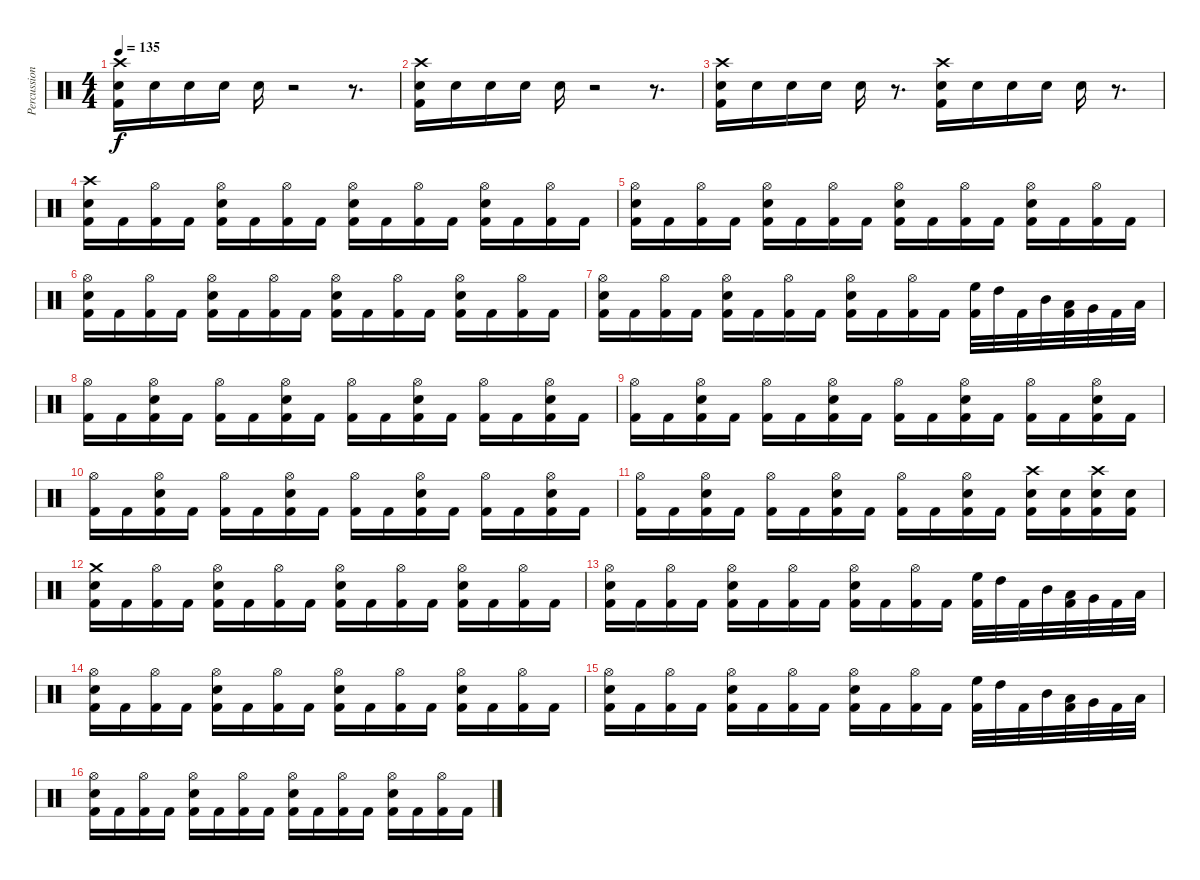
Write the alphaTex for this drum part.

\track ("Percussion" "Percussion") {instrument percussion}
\staff {score}
\articulation defaults
\ts (4 4)
\tempo 135
\clef neutral
\ks c
("Kick (hit) 2" "Electric Snare (hit)" "Crash high (hit)").16{dy f} "Electric Snare (hit)".16 "Electric Snare (hit)".16 "Electric Snare (hit)".16 "Electric Snare (hit)".16 r.2 r.8{d} |
("Kick (hit) 2" "Electric Snare (hit)" "Crash high (hit)").16 "Electric Snare (hit)".16 "Electric Snare (hit)".16 "Electric Snare (hit)".16 "Electric Snare (hit)".16 r.2 r.8{d} |
("Kick (hit) 2" "Electric Snare (hit)" "Crash high (hit)").16 "Electric Snare (hit)".16 "Electric Snare (hit)".16 "Electric Snare (hit)".16 "Electric Snare (hit)".16 r.8{d} ("Kick (hit) 2" "Electric Snare (hit)" "Crash high (hit)").16 "Electric Snare (hit)".16 "Electric Snare (hit)".16 "Electric Snare (hit)".16 "Electric Snare (hit)".16 r.8{d} |
("Kick (hit) 2" "Electric Snare (hit)" "Crash high (hit)").16 "Kick (hit) 2".16 ("Kick (hit) 2" "Hi-Hat (open)").16 "Kick (hit) 2".16 ("Kick (hit) 2" "Electric Snare (hit)" "Hi-Hat (open)").16 "Kick (hit) 2".16 ("Kick (hit) 2" "Hi-Hat (open)").16 "Kick (hit) 2".16 ("Kick (hit) 2" "Electric Snare (hit)" "Hi-Hat (open)").16 "Kick (hit) 2".16 ("Kick (hit) 2" "Hi-Hat (open)").16 "Kick (hit) 2".16 ("Kick (hit) 2" "Electric Snare (hit)" "Hi-Hat (open)").16 "Kick (hit) 2".16 ("Kick (hit) 2" "Hi-Hat (open)").16 "Kick (hit) 2".16 |
("Kick (hit) 2" "Electric Snare (hit)" "Hi-Hat (open)").16 "Kick (hit) 2".16 ("Kick (hit) 2" "Hi-Hat (open)").16 "Kick (hit) 2".16 ("Kick (hit) 2" "Electric Snare (hit)" "Hi-Hat (open)").16 "Kick (hit) 2".16 ("Kick (hit) 2" "Hi-Hat (open)").16 "Kick (hit) 2".16 ("Kick (hit) 2" "Electric Snare (hit)" "Hi-Hat (open)").16 "Kick (hit) 2".16 ("Kick (hit) 2" "Hi-Hat (open)").16 "Kick (hit) 2".16 ("Kick (hit) 2" "Electric Snare (hit)" "Hi-Hat (open)").16 "Kick (hit) 2".16 ("Kick (hit) 2" "Hi-Hat (open)").16 "Kick (hit) 2".16 |
("Kick (hit) 2" "Electric Snare (hit)" "Hi-Hat (open)").16 "Kick (hit) 2".16 ("Kick (hit) 2" "Hi-Hat (open)").16 "Kick (hit) 2".16 ("Kick (hit) 2" "Electric Snare (hit)" "Hi-Hat (open)").16 "Kick (hit) 2".16 ("Kick (hit) 2" "Hi-Hat (open)").16 "Kick (hit) 2".16 ("Kick (hit) 2" "Electric Snare (hit)" "Hi-Hat (open)").16 "Kick (hit) 2".16 ("Kick (hit) 2" "Hi-Hat (open)").16 "Kick (hit) 2".16 ("Kick (hit) 2" "Electric Snare (hit)" "Hi-Hat (open)").16 "Kick (hit) 2".16 ("Kick (hit) 2" "Hi-Hat (open)").16 "Kick (hit) 2".16 |
("Kick (hit) 2" "Electric Snare (hit)" "Hi-Hat (open)").16 "Kick (hit) 2".16 ("Kick (hit) 2" "Hi-Hat (open)").16 "Kick (hit) 2".16 ("Kick (hit) 2" "Electric Snare (hit)" "Hi-Hat (open)").16 "Kick (hit) 2".16 ("Kick (hit) 2" "Hi-Hat (open)").16 "Kick (hit) 2".16 ("Kick (hit) 2" "Electric Snare (hit)" "Hi-Hat (open)").16 "Kick (hit) 2".16 ("Kick (hit) 2" "Hi-Hat (open)").16 "Kick (hit) 2".16 ("Kick (hit) 2" "High Floor Tom (hit)").32 "High Tom (hit)".32 "Kick (hit) 2".32 "Mid Tom (hit)".32 ("Kick (hit) 2" "Low Tom (hit)").32 "Very Low Tom (hit)".32 "Kick (hit) 2".32 "Low Floor Tom (hit)".32 |
("Kick (hit) 2" "Hi-Hat (open)").16 "Kick (hit) 2".16 ("Kick (hit) 2" "Electric Snare (hit)" "Hi-Hat (open)").16 "Kick (hit) 2".16 ("Kick (hit) 2" "Hi-Hat (open)").16 "Kick (hit) 2".16 ("Kick (hit) 2" "Electric Snare (hit)" "Hi-Hat (open)").16 "Kick (hit) 2".16 ("Kick (hit) 2" "Hi-Hat (open)").16 "Kick (hit) 2".16 ("Kick (hit) 2" "Electric Snare (hit)" "Hi-Hat (open)").16 "Kick (hit) 2".16 ("Kick (hit) 2" "Hi-Hat (open)").16 "Kick (hit) 2".16 ("Kick (hit) 2" "Electric Snare (hit)" "Hi-Hat (open)").16 "Kick (hit) 2".16 |
("Kick (hit) 2" "Hi-Hat (open)").16 "Kick (hit) 2".16 ("Kick (hit) 2" "Electric Snare (hit)" "Hi-Hat (open)").16 "Kick (hit) 2".16 ("Kick (hit) 2" "Hi-Hat (open)").16 "Kick (hit) 2".16 ("Kick (hit) 2" "Electric Snare (hit)" "Hi-Hat (open)").16 "Kick (hit) 2".16 ("Kick (hit) 2" "Hi-Hat (open)").16 "Kick (hit) 2".16 ("Kick (hit) 2" "Electric Snare (hit)" "Hi-Hat (open)").16 "Kick (hit) 2".16 ("Kick (hit) 2" "Hi-Hat (open)").16 "Kick (hit) 2".16 ("Kick (hit) 2" "Electric Snare (hit)" "Hi-Hat (open)").16 "Kick (hit) 2".16 |
("Kick (hit) 2" "Hi-Hat (open)").16 "Kick (hit) 2".16 ("Kick (hit) 2" "Electric Snare (hit)" "Hi-Hat (open)").16 "Kick (hit) 2".16 ("Kick (hit) 2" "Hi-Hat (open)").16 "Kick (hit) 2".16 ("Kick (hit) 2" "Electric Snare (hit)" "Hi-Hat (open)").16 "Kick (hit) 2".16 ("Kick (hit) 2" "Hi-Hat (open)").16 "Kick (hit) 2".16 ("Kick (hit) 2" "Electric Snare (hit)" "Hi-Hat (open)").16 "Kick (hit) 2".16 ("Kick (hit) 2" "Hi-Hat (open)").16 "Kick (hit) 2".16 ("Kick (hit) 2" "Electric Snare (hit)" "Hi-Hat (open)").16 "Kick (hit) 2".16 |
("Kick (hit) 2" "Hi-Hat (open)").16 "Kick (hit) 2".16 ("Kick (hit) 2" "Electric Snare (hit)" "Hi-Hat (open)").16 "Kick (hit) 2".16 ("Kick (hit) 2" "Hi-Hat (open)").16 "Kick (hit) 2".16 ("Kick (hit) 2" "Electric Snare (hit)" "Hi-Hat (open)").16 "Kick (hit) 2".16 ("Kick (hit) 2" "Hi-Hat (open)").16 "Kick (hit) 2".16 ("Kick (hit) 2" "Electric Snare (hit)" "Hi-Hat (open)").16 "Kick (hit) 2".16 ("Kick (hit) 2" "Electric Snare (hit)" "Crash high (hit)").16 ("Kick (hit) 2" "Electric Snare (hit)").16 ("Kick (hit) 2" "Electric Snare (hit)" "Crash high (hit)").16 ("Kick (hit) 2" "Electric Snare (hit)").16 |
("Kick (hit) 2" "Electric Snare (hit)" "Crash medium (hit)").16 "Kick (hit) 2".16 ("Kick (hit) 2" "Hi-Hat (open)").16 "Kick (hit) 2".16 ("Kick (hit) 2" "Electric Snare (hit)" "Hi-Hat (open)").16 "Kick (hit) 2".16 ("Kick (hit) 2" "Hi-Hat (open)").16 "Kick (hit) 2".16 ("Kick (hit) 2" "Electric Snare (hit)" "Hi-Hat (open)").16 "Kick (hit) 2".16 ("Kick (hit) 2" "Hi-Hat (open)").16 "Kick (hit) 2".16 ("Kick (hit) 2" "Electric Snare (hit)" "Hi-Hat (open)").16 "Kick (hit) 2".16 ("Kick (hit) 2" "Hi-Hat (open)").16 "Kick (hit) 2".16 |
("Kick (hit) 2" "Electric Snare (hit)" "Hi-Hat (open)").16 "Kick (hit) 2".16 ("Kick (hit) 2" "Hi-Hat (open)").16 "Kick (hit) 2".16 ("Kick (hit) 2" "Electric Snare (hit)" "Hi-Hat (open)").16 "Kick (hit) 2".16 ("Kick (hit) 2" "Hi-Hat (open)").16 "Kick (hit) 2".16 ("Kick (hit) 2" "Electric Snare (hit)" "Hi-Hat (open)").16 "Kick (hit) 2".16 ("Kick (hit) 2" "Hi-Hat (open)").16 "Kick (hit) 2".16 ("Kick (hit) 2" "High Floor Tom (hit)").32 "High Tom (hit)".32 "Kick (hit) 2".32 "Mid Tom (hit)".32 ("Kick (hit) 2" "Low Tom (hit)").32 "Very Low Tom (hit)".32 "Kick (hit) 2".32 "Low Floor Tom (hit)".32 |
("Kick (hit) 2" "Electric Snare (hit)" "Hi-Hat (open)").16 "Kick (hit) 2".16 ("Kick (hit) 2" "Hi-Hat (open)").16 "Kick (hit) 2".16 ("Kick (hit) 2" "Electric Snare (hit)" "Hi-Hat (open)").16 "Kick (hit) 2".16 ("Kick (hit) 2" "Hi-Hat (open)").16 "Kick (hit) 2".16 ("Kick (hit) 2" "Electric Snare (hit)" "Hi-Hat (open)").16 "Kick (hit) 2".16 ("Kick (hit) 2" "Hi-Hat (open)").16 "Kick (hit) 2".16 ("Kick (hit) 2" "Electric Snare (hit)" "Hi-Hat (open)").16 "Kick (hit) 2".16 ("Kick (hit) 2" "Hi-Hat (open)").16 "Kick (hit) 2".16 |
("Kick (hit) 2" "Electric Snare (hit)" "Hi-Hat (open)").16 "Kick (hit) 2".16 ("Kick (hit) 2" "Hi-Hat (open)").16 "Kick (hit) 2".16 ("Kick (hit) 2" "Electric Snare (hit)" "Hi-Hat (open)").16 "Kick (hit) 2".16 ("Kick (hit) 2" "Hi-Hat (open)").16 "Kick (hit) 2".16 ("Kick (hit) 2" "Electric Snare (hit)" "Hi-Hat (open)").16 "Kick (hit) 2".16 ("Kick (hit) 2" "Hi-Hat (open)").16 "Kick (hit) 2".16 ("Kick (hit) 2" "High Floor Tom (hit)").32 "High Tom (hit)".32 "Kick (hit) 2".32 "Mid Tom (hit)".32 ("Kick (hit) 2" "Low Tom (hit)").32 "Very Low Tom (hit)".32 "Kick (hit) 2".32 "Low Floor Tom (hit)".32 |
("Kick (hit) 2" "Electric Snare (hit)" "Hi-Hat (open)").16 "Kick (hit) 2".16 ("Kick (hit) 2" "Hi-Hat (open)").16 "Kick (hit) 2".16 ("Kick (hit) 2" "Electric Snare (hit)" "Hi-Hat (open)").16 "Kick (hit) 2".16 ("Kick (hit) 2" "Hi-Hat (open)").16 "Kick (hit) 2".16 ("Kick (hit) 2" "Electric Snare (hit)" "Hi-Hat (open)").16 "Kick (hit) 2".16 ("Kick (hit) 2" "Hi-Hat (open)").16 "Kick (hit) 2".16 ("Kick (hit) 2" "Electric Snare (hit)" "Hi-Hat (open)").16 "Kick (hit) 2".16 ("Kick (hit) 2" "Hi-Hat (open)").16 "Kick (hit) 2".16
